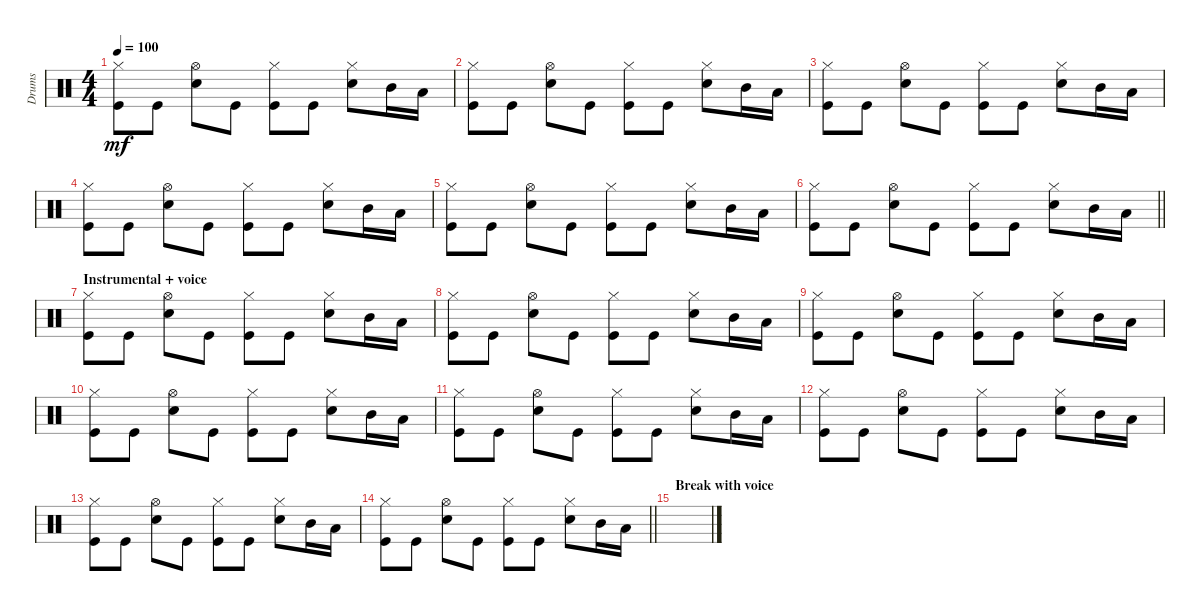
\track ("Drums" "Drums") {instrument percussion}
\staff {score}
\articulation defaults
\ts (4 4)
\tempo 100
\clef neutral
\ks c
("Kick (hit)" "Hi-Hat (closed)").8{dy mf} "Kick (hit)".8 ("Electric Snare (hit)" "Hi-Hat (open)").8 "Kick (hit)".8 ("Kick (hit)" "Hi-Hat (closed)").8 "Kick (hit)".8 ("Electric Snare (hit)" "Hi-Hat (closed)").8 "Mid Tom (hit)".16 "Low Tom (hit)".16 |
("Kick (hit)" "Hi-Hat (closed)").8 "Kick (hit)".8 ("Electric Snare (hit)" "Hi-Hat (open)").8 "Kick (hit)".8 ("Kick (hit)" "Hi-Hat (closed)").8 "Kick (hit)".8 ("Electric Snare (hit)" "Hi-Hat (closed)").8 "Mid Tom (hit)".16 "Low Tom (hit)".16 |
("Kick (hit)" "Hi-Hat (closed)").8 "Kick (hit)".8 ("Electric Snare (hit)" "Hi-Hat (open)").8 "Kick (hit)".8 ("Kick (hit)" "Hi-Hat (closed)").8 "Kick (hit)".8 ("Electric Snare (hit)" "Hi-Hat (closed)").8 "Mid Tom (hit)".16 "Low Tom (hit)".16 |
("Kick (hit)" "Hi-Hat (closed)").8 "Kick (hit)".8 ("Electric Snare (hit)" "Hi-Hat (open)").8 "Kick (hit)".8 ("Kick (hit)" "Hi-Hat (closed)").8 "Kick (hit)".8 ("Electric Snare (hit)" "Hi-Hat (closed)").8 "Mid Tom (hit)".16 "Low Tom (hit)".16 |
("Kick (hit)" "Hi-Hat (closed)").8 "Kick (hit)".8 ("Electric Snare (hit)" "Hi-Hat (open)").8 "Kick (hit)".8 ("Kick (hit)" "Hi-Hat (closed)").8 "Kick (hit)".8 ("Electric Snare (hit)" "Hi-Hat (closed)").8 "Mid Tom (hit)".16 "Low Tom (hit)".16 |
\barLineRight lightlight
("Kick (hit)" "Hi-Hat (closed)").8 "Kick (hit)".8 ("Electric Snare (hit)" "Hi-Hat (open)").8 "Kick (hit)".8 ("Kick (hit)" "Hi-Hat (closed)").8 "Kick (hit)".8 ("Electric Snare (hit)" "Hi-Hat (closed)").8 "Mid Tom (hit)".16 "Low Tom (hit)".16 |
\section ("" "Instrumental + voice")
("Kick (hit)" "Hi-Hat (closed)").8 "Kick (hit)".8 ("Electric Snare (hit)" "Hi-Hat (open)").8 "Kick (hit)".8 ("Kick (hit)" "Hi-Hat (closed)").8 "Kick (hit)".8 ("Electric Snare (hit)" "Hi-Hat (closed)").8 "Mid Tom (hit)".16 "Low Tom (hit)".16 |
("Kick (hit)" "Hi-Hat (closed)").8 "Kick (hit)".8 ("Electric Snare (hit)" "Hi-Hat (open)").8 "Kick (hit)".8 ("Kick (hit)" "Hi-Hat (closed)").8 "Kick (hit)".8 ("Electric Snare (hit)" "Hi-Hat (closed)").8 "Mid Tom (hit)".16 "Low Tom (hit)".16 |
("Kick (hit)" "Hi-Hat (closed)").8 "Kick (hit)".8 ("Electric Snare (hit)" "Hi-Hat (open)").8 "Kick (hit)".8 ("Kick (hit)" "Hi-Hat (closed)").8 "Kick (hit)".8 ("Electric Snare (hit)" "Hi-Hat (closed)").8 "Mid Tom (hit)".16 "Low Tom (hit)".16 |
("Kick (hit)" "Hi-Hat (closed)").8 "Kick (hit)".8 ("Electric Snare (hit)" "Hi-Hat (open)").8 "Kick (hit)".8 ("Kick (hit)" "Hi-Hat (closed)").8 "Kick (hit)".8 ("Electric Snare (hit)" "Hi-Hat (closed)").8 "Mid Tom (hit)".16 "Low Tom (hit)".16 |
("Kick (hit)" "Hi-Hat (closed)").8 "Kick (hit)".8 ("Electric Snare (hit)" "Hi-Hat (open)").8 "Kick (hit)".8 ("Kick (hit)" "Hi-Hat (closed)").8 "Kick (hit)".8 ("Electric Snare (hit)" "Hi-Hat (closed)").8 "Mid Tom (hit)".16 "Low Tom (hit)".16 |
("Kick (hit)" "Hi-Hat (closed)").8 "Kick (hit)".8 ("Electric Snare (hit)" "Hi-Hat (open)").8 "Kick (hit)".8 ("Kick (hit)" "Hi-Hat (closed)").8 "Kick (hit)".8 ("Electric Snare (hit)" "Hi-Hat (closed)").8 "Mid Tom (hit)".16 "Low Tom (hit)".16 |
("Kick (hit)" "Hi-Hat (closed)").8 "Kick (hit)".8 ("Electric Snare (hit)" "Hi-Hat (open)").8 "Kick (hit)".8 ("Kick (hit)" "Hi-Hat (closed)").8 "Kick (hit)".8 ("Electric Snare (hit)" "Hi-Hat (closed)").8 "Mid Tom (hit)".16 "Low Tom (hit)".16 |
\barLineRight lightlight
("Kick (hit)" "Hi-Hat (closed)").8 "Kick (hit)".8 ("Electric Snare (hit)" "Hi-Hat (open)").8 "Kick (hit)".8 ("Kick (hit)" "Hi-Hat (closed)").8 "Kick (hit)".8 ("Electric Snare (hit)" "Hi-Hat (closed)").8 "Mid Tom (hit)".16 "Low Tom (hit)".16 |
\section ("" "Break with voice")
